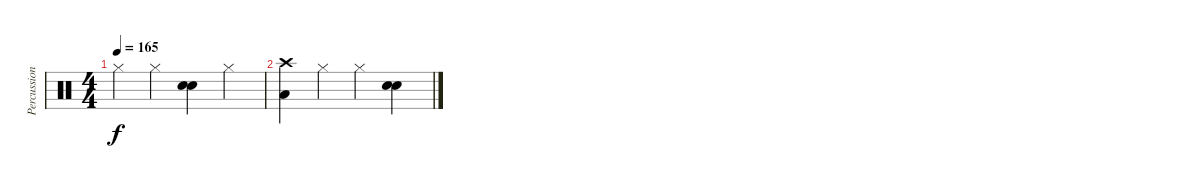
\track ("Percussion" "Percussion") {instrument percussion}
\staff {score}
\articulation defaults
\ts (4 4)
\tempo 165
\clef neutral
\ks c "Hi-Hat (closed)".4{dy f} "Hi-Hat (closed)".4
("Electric Snare (hit)" "Electric Snare (hit)").4 "Hi-Hat (closed)".4 |
("Crash high (hit)" "Low Tom (hit)").4 "Hi-Hat (closed)".4 "Hi-Hat (closed)".4 ("Electric Snare (hit)" "Electric Snare (hit)").4
